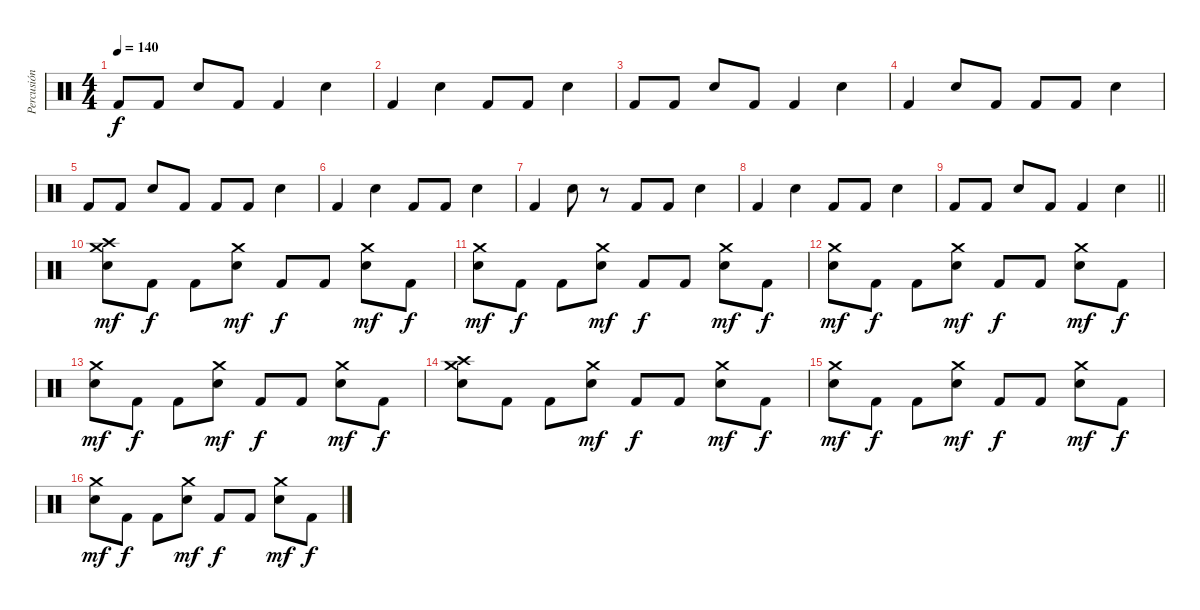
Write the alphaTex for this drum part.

\track ("Percusión" "Percusión") {instrument percussion}
\staff {score}
\articulation defaults
\ts (4 4)
\tempo 140
\clef neutral
\ks c "Kick (hit) 2".8{dy f} "Kick (hit) 2".8 "Electric Snare (hit)".8 "Kick (hit) 2".8 "Kick (hit) 2".4 "Electric Snare (hit)".4
|
"Kick (hit) 2".4 "Electric Snare (hit)".4 "Kick (hit) 2".8 "Kick (hit) 2".8 "Electric Snare (hit)".4 |
"Kick (hit) 2".8 "Kick (hit) 2".8 "Electric Snare (hit)".8 "Kick (hit) 2".8 "Kick (hit) 2".4 "Electric Snare (hit)".4 |
"Kick (hit) 2".4 "Electric Snare (hit)".8 "Kick (hit) 2".8 "Kick (hit) 2".8 "Kick (hit) 2".8 "Electric Snare (hit)".4 |
"Kick (hit) 2".8 "Kick (hit) 2".8 "Electric Snare (hit)".8 "Kick (hit) 2".8 "Kick (hit) 2".8 "Kick (hit) 2".8 "Electric Snare (hit)".4 |
"Kick (hit) 2".4 "Electric Snare (hit)".4 "Kick (hit) 2".8 "Kick (hit) 2".8 "Electric Snare (hit)".4 |
"Kick (hit) 2".4 "Electric Snare (hit)".8 r.8 "Kick (hit) 2".8 "Kick (hit) 2".8 "Electric Snare (hit)".4 |
"Kick (hit) 2".4 "Electric Snare (hit)".4 "Kick (hit) 2".8 "Kick (hit) 2".8 "Electric Snare (hit)".4 |
\barLineRight lightlight "Kick (hit) 2".8 "Kick (hit) 2".8 "Electric Snare (hit)".8 "Kick (hit) 2".8 "Kick (hit) 2".4 "Electric Snare (hit)".4
|
("Crash medium (hit)" "Crash high (hit)" "Electric Snare (hit)").8{dy mf} "Kick (hit) 2".8{dy f} "Kick (hit) 2".8 ("Crash medium (hit)" "Electric Snare (hit)").8{dy mf} "Kick (hit) 2".8{dy f} "Kick (hit) 2".8 ("Crash medium (hit)" "Electric Snare (hit)").8{dy mf} "Kick (hit) 2".8{dy f} |
("Crash medium (hit)" "Electric Snare (hit)").8{dy mf} "Kick (hit) 2".8{dy f} "Kick (hit) 2".8 ("Crash medium (hit)" "Electric Snare (hit)").8{dy mf} "Kick (hit) 2".8{dy f} "Kick (hit) 2".8 ("Crash medium (hit)" "Electric Snare (hit)").8{dy mf} "Kick (hit) 2".8{dy f} |
("Crash medium (hit)" "Electric Snare (hit)").8{dy mf} "Kick (hit) 2".8{dy f} "Kick (hit) 2".8 ("Crash medium (hit)" "Electric Snare (hit)").8{dy mf} "Kick (hit) 2".8{dy f} "Kick (hit) 2".8 ("Crash medium (hit)" "Electric Snare (hit)").8{dy mf} "Kick (hit) 2".8{dy f} |
("Crash medium (hit)" "Electric Snare (hit)").8{dy mf} "Kick (hit) 2".8{dy f} "Kick (hit) 2".8 ("Crash medium (hit)" "Electric Snare (hit)").8{dy mf} "Kick (hit) 2".8{dy f} "Kick (hit) 2".8 ("Crash medium (hit)" "Electric Snare (hit)").8{dy mf} "Kick (hit) 2".8{dy f} |
("Crash medium (hit)" "Crash high (hit)" "Electric Snare (hit)").8 "Kick (hit) 2".8 "Kick (hit) 2".8 ("Crash medium (hit)" "Electric Snare (hit)").8{dy mf} "Kick (hit) 2".8{dy f} "Kick (hit) 2".8 ("Crash medium (hit)" "Electric Snare (hit)").8{dy mf} "Kick (hit) 2".8{dy f} |
("Crash medium (hit)" "Electric Snare (hit)").8{dy mf} "Kick (hit) 2".8{dy f} "Kick (hit) 2".8 ("Crash medium (hit)" "Electric Snare (hit)").8{dy mf} "Kick (hit) 2".8{dy f} "Kick (hit) 2".8 ("Crash medium (hit)" "Electric Snare (hit)").8{dy mf} "Kick (hit) 2".8{dy f} |
("Crash medium (hit)" "Electric Snare (hit)").8{dy mf} "Kick (hit) 2".8{dy f} "Kick (hit) 2".8 ("Crash medium (hit)" "Electric Snare (hit)").8{dy mf} "Kick (hit) 2".8{dy f} "Kick (hit) 2".8 ("Crash medium (hit)" "Electric Snare (hit)").8{dy mf} "Kick (hit) 2".8{dy f}
